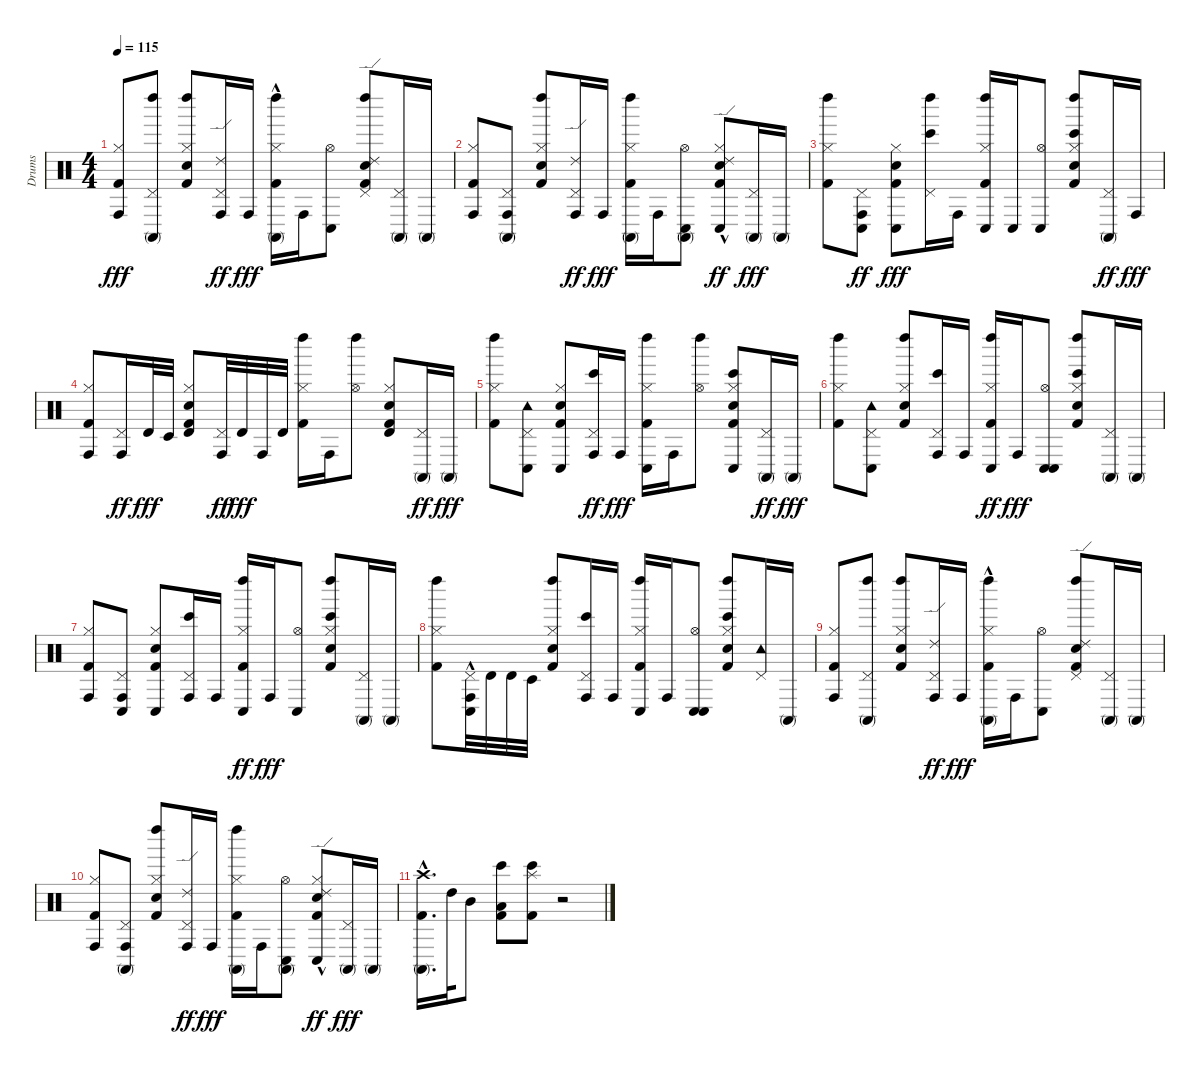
\track ("Drums" "Drums") {instrument percussion}
\staff {score}
\articulation defaults
\ts (4 4)
\tempo 115
\clef neutral
\ks c
("Conga high (hit)" "Hi-Hat (closed)" "Kick (hit) 2").8{dy fff} ("Conga high (mute)" "Left Maraca (hit)" "Pedal Hi-Hat (hit)").8 ("Left Maraca (hit)" "Hi-Hat (closed)" "Snare (hit) 2" "Kick (hit) 2").8 ("Ride (edge) 2" "Conga high (hit)" "Pedal Hi-Hat (hit)").16{dy ff} "Conga high (hit)".16{dy fff} ("Left Maraca (hit)" "Hi-Hat (closed)" "Kick (hit) 2" "Conga high (mute)"{hac}).16 "Conga high (hit)".16 ("Conga low (hit)" "Hi-Hat (open)").8 ("Ride (edge) 2" "Left Maraca (hit)" "Pedal Hi-Hat (hit)" "Snare (hit) 2" "Kick (hit) 2").8 ("Conga high (mute)" "Pedal Hi-Hat (hit)").16 "Conga high (mute)".16 |
("Conga high (hit)" "Hi-Hat (closed)" "Kick (hit) 2").8 ("Conga high (mute)" "Conga high (hit)" "Pedal Hi-Hat (hit)").8 ("Left Maraca (hit)" "Hi-Hat (closed)" "Snare (hit) 2" "Kick (hit) 2").8 ("Conga high (hit)" "Pedal Hi-Hat (hit)" "Ride (edge) 2").16{dy ff} "Conga high (hit)".16{dy fff} ("Conga high (mute)" "Left Maraca (hit)" "Hi-Hat (closed)" "Kick (hit) 2").16 "Conga high (hit)".16 ("Conga high (mute)" "Conga low (hit)" "Hi-Hat (open)").8 ("Conga low (hit)" "Hi-Hat (closed)" "Snare (hit) 2" "Kick (hit) 2" "Ride (edge) 2"{hac}).8{dy ff} ("Conga high (mute)" "Pedal Hi-Hat (hit)").16{dy fff} "Conga high (mute)".16 |
("Left Maraca (hit)" "Hi-Hat (closed)" "Kick (hit) 2").8 ("Conga low (hit)" "Conga high (hit)" "Pedal Hi-Hat (hit)").8{dy ff} ("Conga low (hit)" "Hi-Hat (closed)" "Snare (hit) 2" "Kick (hit) 2").8{dy fff} ("Bongo High (hit)" "Left Maraca (hit)" "Pedal Hi-Hat (hit)").16 "Conga high (hit)".16 ("Conga low (hit)" "Left Maraca (hit)" "Hi-Hat (closed)" "Kick (hit) 2").16 "Conga low (hit)".16 ("Conga low (hit)" "Hi-Hat (open)").8 ("Bongo High (hit)" "Left Maraca (hit)" "Hi-Hat (closed)" "Snare (hit) 2" "Kick (hit) 2").8 ("Conga high (mute)" "Pedal Hi-Hat (hit)").16{dy ff} "Conga high (hit)".16{dy fff} |
("Conga high (hit)" "Hi-Hat (closed)" "Kick (hit) 2").8 ("Conga high (hit)" "Pedal Hi-Hat (hit)").16{dy ff} "Timbale high (hit)".32{dy fff} "Timbale low (hit)".32 ("Timbale high (hit)" "Hi-Hat (closed)" "Snare (hit) 2" "Kick (hit) 2").8 ("Conga high (hit)" "Pedal Hi-Hat (hit)").32{dy ff} "Timbale high (hit)".32{dy fff} "Conga high (hit)".32 "Timbale high (hit)".32 ("Left Maraca (hit)" "Hi-Hat (closed)" "Kick (hit) 2").16 "Conga high (hit)".16 ("Left Maraca (hit)" "Hi-Hat (open)").8 ("Timbale high (hit)" "Hi-Hat (closed)" "Snare (hit) 2" "Kick (hit) 2").8 ("Conga high (mute)" "Pedal Hi-Hat (hit)").16{dy ff} "Conga high (mute)".16{dy fff} |
("Left Maraca (hit)" "Hi-Hat (closed)" "Kick (hit) 2").8 ("Conga low (hit)" "Pedal Hi-Hat (hit)" "Tambourine (hit)").8 ("Conga low (hit)" "Hi-Hat (closed)" "Snare (hit) 2" "Kick (hit) 2").8 ("Bongo High (hit)" "Conga high (hit)" "Pedal Hi-Hat (hit)").16{dy ff} "Conga high (hit)".16{dy fff} ("Conga low (hit)" "Left Maraca (hit)" "Hi-Hat (closed)" "Kick (hit) 2").16 "Conga high (hit)".16 ("Left Maraca (hit)" "Hi-Hat (open)").8 ("Bongo High (hit)" "Conga low (hit)" "Hi-Hat (closed)" "Snare (hit) 2" "Kick (hit) 2").8 ("Conga high (mute)" "Pedal Hi-Hat (hit)").16{dy ff} "Conga high (mute)".16{dy fff} |
("Left Maraca (hit)" "Hi-Hat (closed)" "Kick (hit) 2").8 ("Conga low (hit)" "Pedal Hi-Hat (hit)" "Tambourine (hit)").8 ("Left Maraca (hit)" "Hi-Hat (closed)" "Snare (hit) 2" "Kick (hit) 2").8 ("Bongo High (hit)" "Conga high (hit)" "Pedal Hi-Hat (hit)").16 "Conga high (hit)".16 ("Left Maraca (hit)" "Hi-Hat (closed)" "Kick (hit) 2" "Conga low (hit)").16{dy ff} "Conga high (hit)".16{dy fff} ("Conga low (hit)" "Conga low (hit)" "Hi-Hat (open)").8 ("Bongo High (hit)" "Left Maraca (hit)" "Hi-Hat (closed)" "Snare (hit) 2" "Kick (hit) 2").8 ("Conga high (mute)" "Pedal Hi-Hat (hit)").16 "Conga high (mute)".16 |
("Conga high (hit)" "Hi-Hat (closed)" "Kick (hit) 2").8 ("Conga high (hit)" "Pedal Hi-Hat (hit)" "Conga low (hit)").8 ("Conga low (hit)" "Hi-Hat (closed)" "Snare (hit) 2" "Kick (hit) 2").8 ("Bongo High (hit)" "Conga high (hit)" "Pedal Hi-Hat (hit)").16 "Conga high (hit)".16 ("Left Maraca (hit)" "Hi-Hat (closed)" "Kick (hit) 2" "Conga low (hit)").16{dy ff} "Conga high (hit)".16{dy fff} ("Conga low (hit)" "Hi-Hat (open)").8 ("Bongo High (hit)" "Left Maraca (hit)" "Hi-Hat (closed)" "Snare (hit) 2" "Kick (hit) 2").8 ("Conga high (mute)" "Pedal Hi-Hat (hit)").16 "Conga high (mute)".16 |
("Left Maraca (hit)" "Hi-Hat (closed)" "Kick (hit) 2").8 ("Conga high (hit)" "Pedal Hi-Hat (hit)" "Conga low (hit)"{hac}).32 "Timbale high (hit)".32 "Timbale high (hit)".32 "Timbale low (hit)".32 ("Left Maraca (hit)" "Hi-Hat (closed)" "Snare (hit) 2" "Kick (hit) 2").8 ("Bongo High (hit)" "Conga high (hit)" "Pedal Hi-Hat (hit)").16 "Conga high (hit)".16 ("Conga low (hit)" "Left Maraca (hit)" "Hi-Hat (closed)" "Kick (hit) 2").16 "Conga high (hit)".16 ("Conga low (hit)" "Conga low (hit)" "Hi-Hat (open)").8 ("Bongo High (hit)" "Left Maraca (hit)" "Hi-Hat (closed)" "Snare (hit) 2" "Kick (hit) 2").8 ("Pedal Hi-Hat (hit)" "Tambourine (hit)").16 "Conga high (mute)".16 |
("Conga high (hit)" "Hi-Hat (closed)" "Kick (hit) 2").8 ("Conga high (mute)" "Left Maraca (hit)" "Pedal Hi-Hat (hit)").8 ("Left Maraca (hit)" "Hi-Hat (closed)" "Snare (hit) 2" "Kick (hit) 2").8 ("Ride (edge) 2" "Conga high (hit)" "Pedal Hi-Hat (hit)").16{dy ff} "Conga high (hit)".16{dy fff} ("Left Maraca (hit)" "Hi-Hat (closed)" "Kick (hit) 2" "Conga high (mute)"{hac}).16 "Conga high (hit)".16 ("Conga low (hit)" "Hi-Hat (open)").8 ("Ride (edge) 2" "Left Maraca (hit)" "Pedal Hi-Hat (hit)" "Snare (hit) 2" "Kick (hit) 2").8 ("Conga high (mute)" "Pedal Hi-Hat (hit)").16 "Conga high (mute)".16 |
("Conga high (hit)" "Hi-Hat (closed)" "Kick (hit) 2").8 ("Conga high (mute)" "Conga high (hit)" "Pedal Hi-Hat (hit)").8 ("Left Maraca (hit)" "Hi-Hat (closed)" "Snare (hit) 2" "Kick (hit) 2").8 ("Conga high (hit)" "Pedal Hi-Hat (hit)" "Ride (edge) 2").16{dy ff} "Conga high (hit)".16{dy fff} ("Conga high (mute)" "Left Maraca (hit)" "Hi-Hat (closed)" "Kick (hit) 2").16 "Conga high (hit)".16 ("Conga high (mute)" "Conga low (hit)" "Hi-Hat (open)").8 ("Conga low (hit)" "Hi-Hat (closed)" "Snare (hit) 2" "Kick (hit) 2" "Ride (edge) 2"{hac}).8{dy ff} ("Conga high (mute)" "Pedal Hi-Hat (hit)").16{dy fff} "Conga high (mute)".16 |
("Conga high (mute)" "Crash high (hit)"{hac} "Kick (hit) 2"{hac}).16{d} "High Tom (hit)".32 "Mid Tom (hit)".8 ("Bongo High (hit)" "Low Tom (hit)" "Kick (hit) 2").8 ("Bongo High (hit)" "Splash (hit)" "Kick (hit) 2").8 r.2
